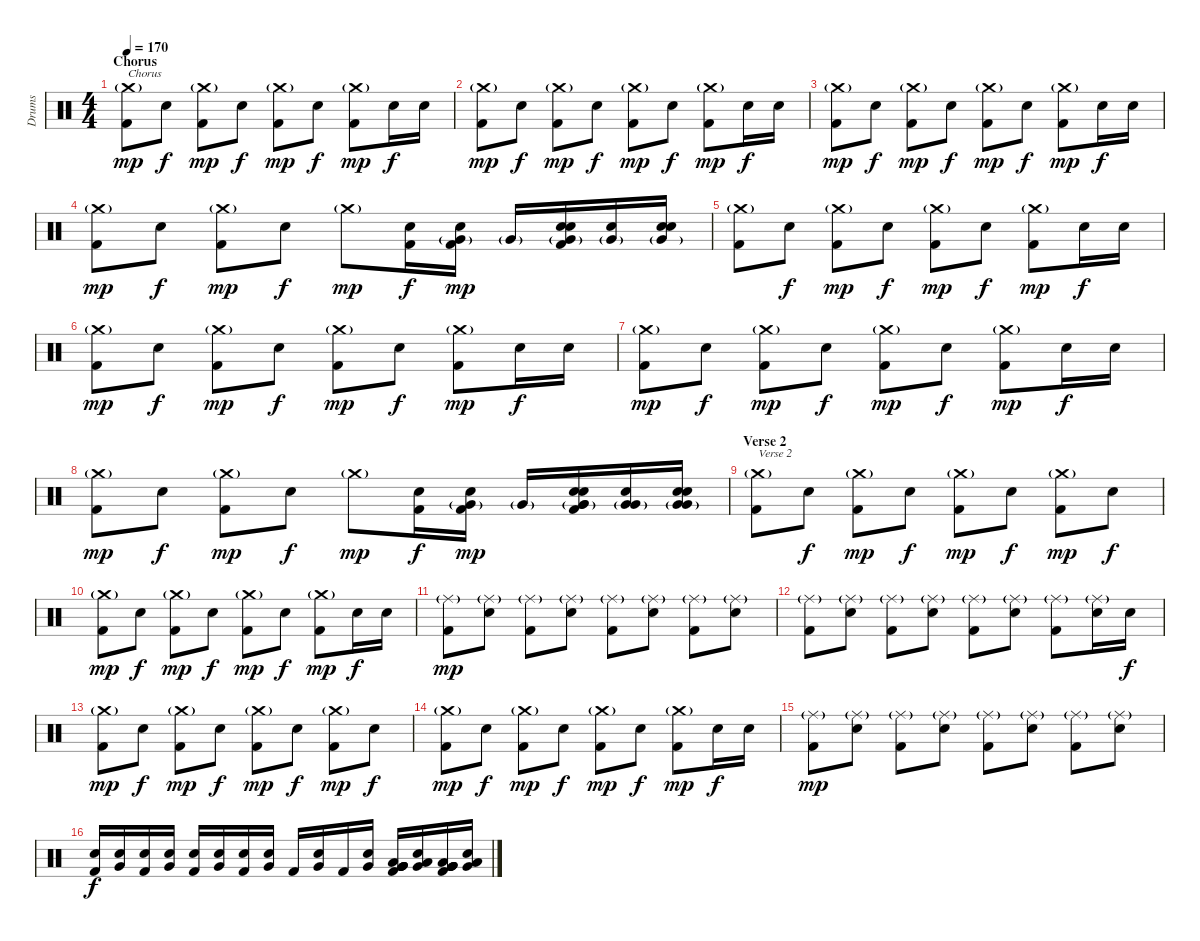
\track ("Drums" "Drums") {instrument percussion}
\staff {score}
\articulation defaults
\ts (4 4)
\section ("" "Chorus")
\tempo 170
\clef neutral
\ks c
("Crash medium (hit)"{g} "Kick (hit) 2").8{txt "Chorus" dy mp} "Snare (hit) 2".8{dy f} ("Crash medium (hit)"{g} "Kick (hit) 2").8{dy mp} "Snare (hit) 2".8{dy f} ("Crash medium (hit)"{g} "Kick (hit) 2").8{dy mp} "Snare (hit) 2".8{dy f} ("Crash medium (hit)"{g} "Kick (hit) 2").8{dy mp} "Snare (hit) 2".16{dy f} "Snare (hit) 2".16 |
("Crash medium (hit)"{g} "Kick (hit) 2").8{dy mp} "Snare (hit) 2".8{dy f} ("Crash medium (hit)"{g} "Kick (hit) 2").8{dy mp} "Snare (hit) 2".8{dy f} ("Crash medium (hit)"{g} "Kick (hit) 2").8{dy mp} "Snare (hit) 2".8{dy f} ("Crash medium (hit)"{g} "Kick (hit) 2").8{dy mp} "Snare (hit) 2".16{dy f} "Snare (hit) 2".16 |
("Crash medium (hit)"{g} "Kick (hit) 2").8{dy mp} "Snare (hit) 2".8{dy f} ("Crash medium (hit)"{g} "Kick (hit) 2").8{dy mp} "Snare (hit) 2".8{dy f} ("Crash medium (hit)"{g} "Kick (hit) 2").8{dy mp} "Snare (hit) 2".8{dy f} ("Crash medium (hit)"{g} "Kick (hit) 2").8{dy mp} "Snare (hit) 2".16{dy f} "Snare (hit) 2".16 |
("Crash medium (hit)"{g} "Kick (hit) 2").8{dy mp} "Snare (hit) 2".8{dy f} ("Crash medium (hit)"{g} "Kick (hit) 2").8{dy mp} "Snare (hit) 2".8{dy f} "Crash medium (hit)"{g}.8{dy mp} ("Snare (hit) 2" "Kick (hit) 2").16{dy f} ("Very Low Tom (hit)"{g} "Snare (hit) 2" "Kick (hit) 2").16{dy mp} "Very Low Tom (hit)"{g}.16 ("Very Low Tom (hit)"{g} "Snare (hit) 2" "Kick (hit) 2" "Snare (hit) 2").16 ("Very Low Tom (hit)"{g} "Snare (hit) 2").16 ("Very Low Tom (hit)"{g} "Snare (hit) 2" "Snare (hit) 2").16 |
("Crash medium (hit)"{g} "Kick (hit) 2").8 "Snare (hit) 2".8{dy f} ("Crash medium (hit)"{g} "Kick (hit) 2").8{dy mp} "Snare (hit) 2".8{dy f} ("Crash medium (hit)"{g} "Kick (hit) 2").8{dy mp} "Snare (hit) 2".8{dy f} ("Crash medium (hit)"{g} "Kick (hit) 2").8{dy mp} "Snare (hit) 2".16{dy f} "Snare (hit) 2".16 |
("Crash medium (hit)"{g} "Kick (hit) 2").8{dy mp} "Snare (hit) 2".8{dy f} ("Crash medium (hit)"{g} "Kick (hit) 2").8{dy mp} "Snare (hit) 2".8{dy f} ("Crash medium (hit)"{g} "Kick (hit) 2").8{dy mp} "Snare (hit) 2".8{dy f} ("Crash medium (hit)"{g} "Kick (hit) 2").8{dy mp} "Snare (hit) 2".16{dy f} "Snare (hit) 2".16 |
("Crash medium (hit)"{g} "Kick (hit) 2").8{dy mp} "Snare (hit) 2".8{dy f} ("Crash medium (hit)"{g} "Kick (hit) 2").8{dy mp} "Snare (hit) 2".8{dy f} ("Crash medium (hit)"{g} "Kick (hit) 2").8{dy mp} "Snare (hit) 2".8{dy f} ("Crash medium (hit)"{g} "Kick (hit) 2").8{dy mp} "Snare (hit) 2".16{dy f} "Snare (hit) 2".16 |
("Crash medium (hit)"{g} "Kick (hit) 2").8{dy mp} "Snare (hit) 2".8{dy f} ("Crash medium (hit)"{g} "Kick (hit) 2").8{dy mp} "Snare (hit) 2".8{dy f} "Crash medium (hit)"{g}.8{dy mp} ("Snare (hit) 2" "Kick (hit) 2").16{dy f} ("Very Low Tom (hit)"{g} "Snare (hit) 2" "Kick (hit) 2").16{dy mp} "Very Low Tom (hit)"{g}.16 ("Very Low Tom (hit)" "Very Low Tom (hit)"{g} "Snare (hit) 2" "Kick (hit) 2" "Snare (hit) 2").16 ("Very Low Tom (hit)" "Very Low Tom (hit)"{g} "Snare (hit) 2").16 ("Very Low Tom (hit)" "Very Low Tom (hit)"{g} "Snare (hit) 2" "Snare (hit) 2").16 |
\section ("" "Verse 2")
("Crash medium (hit)"{g} "Kick (hit) 2").8{txt "Verse 2"} "Snare (hit) 2".8{dy f} ("Crash medium (hit)"{g} "Kick (hit) 2").8{dy mp} "Snare (hit) 2".8{dy f} ("Crash medium (hit)"{g} "Kick (hit) 2").8{dy mp} "Snare (hit) 2".8{dy f} ("Crash medium (hit)"{g} "Kick (hit) 2").8{dy mp} "Snare (hit) 2".8{dy f} |
("Crash medium (hit)"{g} "Kick (hit) 2").8{dy mp} "Snare (hit) 2".8{dy f} ("Crash medium (hit)"{g} "Kick (hit) 2").8{dy mp} "Snare (hit) 2".8{dy f} ("Crash medium (hit)"{g} "Kick (hit) 2").8{dy mp} "Snare (hit) 2".8{dy f} ("Crash medium (hit)"{g} "Kick (hit) 2").8{dy mp} "Snare (hit) 2".16{dy f} "Snare (hit) 2".16 |
("Ride (middle)"{g} "Kick (hit) 2").8{dy mp} ("Ride (middle)"{g} "Snare (hit) 2").8 ("Ride (middle)"{g} "Kick (hit) 2").8 ("Ride (middle)"{g} "Snare (hit) 2").8 ("Ride (middle)"{g} "Kick (hit) 2").8 ("Ride (middle)"{g} "Snare (hit) 2").8 ("Ride (middle)"{g} "Kick (hit) 2").8 ("Ride (middle)"{g} "Snare (hit) 2").8 |
("Ride (middle)"{g} "Kick (hit) 2").8 ("Ride (middle)"{g} "Snare (hit) 2").8 ("Ride (middle)"{g} "Kick (hit) 2").8 ("Ride (middle)"{g} "Snare (hit) 2").8 ("Ride (middle)"{g} "Kick (hit) 2").8 ("Ride (middle)"{g} "Snare (hit) 2").8 ("Ride (middle)"{g} "Kick (hit) 2").8 ("Ride (middle)"{g} "Snare (hit) 2").16 "Snare (hit) 2".16{dy f} |
("Crash medium (hit)"{g} "Kick (hit) 2").8{dy mp} "Snare (hit) 2".8{dy f} ("Crash medium (hit)"{g} "Kick (hit) 2").8{dy mp} "Snare (hit) 2".8{dy f} ("Crash medium (hit)"{g} "Kick (hit) 2").8{dy mp} "Snare (hit) 2".8{dy f} ("Crash medium (hit)"{g} "Kick (hit) 2").8{dy mp} "Snare (hit) 2".8{dy f} |
("Crash medium (hit)"{g} "Kick (hit) 2").8{dy mp} "Snare (hit) 2".8{dy f} ("Crash medium (hit)"{g} "Kick (hit) 2").8{dy mp} "Snare (hit) 2".8{dy f} ("Crash medium (hit)"{g} "Kick (hit) 2").8{dy mp} "Snare (hit) 2".8{dy f} ("Crash medium (hit)"{g} "Kick (hit) 2").8{dy mp} "Snare (hit) 2".16{dy f} "Snare (hit) 2".16 |
("Ride (middle)"{g} "Kick (hit) 2").8{dy mp} ("Ride (middle)"{g} "Snare (hit) 2").8 ("Ride (middle)"{g} "Kick (hit) 2").8 ("Ride (middle)"{g} "Snare (hit) 2").8 ("Ride (middle)"{g} "Kick (hit) 2").8 ("Ride (middle)"{g} "Snare (hit) 2").8 ("Ride (middle)"{g} "Kick (hit) 2").8 ("Ride (middle)"{g} "Snare (hit) 2").8 |
("Snare (hit) 2" "Kick (hit) 2").16{dy f} ("Snare (hit) 2" "Very Low Tom (hit)").16 ("Snare (hit) 2" "Kick (hit) 2").16 ("Snare (hit) 2" "Very Low Tom (hit)").16 ("Snare (hit) 2" "Kick (hit) 2").16 ("Snare (hit) 2" "Very Low Tom (hit)").16 ("Snare (hit) 2" "Kick (hit) 2").16 ("Snare (hit) 2" "Very Low Tom (hit)").16 "Kick (hit) 2".16 ("Snare (hit) 2" "Very Low Tom (hit)").16 "Kick (hit) 2".16 ("Snare (hit) 2" "Very Low Tom (hit)").16 ("Low Tom (hit)" "Very Low Tom (hit)" "Very Low Tom (hit)" "Very Low Tom (hit)" "Very Low Tom (hit)" "Kick (hit) 2").16 ("Low Tom (hit)" "Snare (hit) 2" "Very Low Tom (hit)").16 ("Low Tom (hit)" "Very Low Tom (hit)" "Very Low Tom (hit)" "Very Low Tom (hit)" "Very Low Tom (hit)" "Kick (hit) 2").16 ("Low Tom (hit)" "Snare (hit) 2" "Very Low Tom (hit)").16
